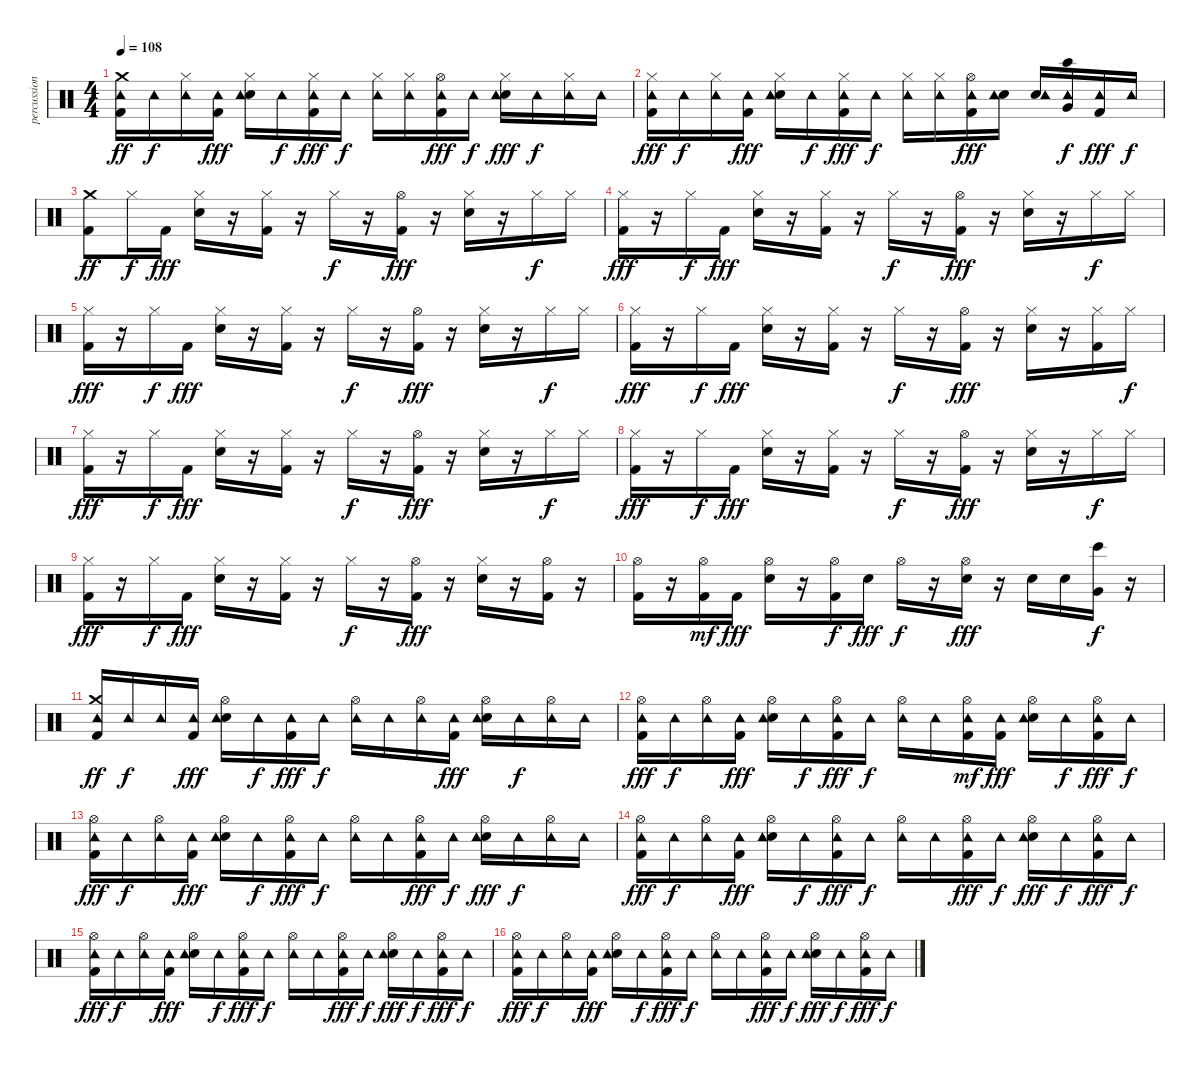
\track ("percussion" "percussion") {instrument percussion}
\staff {score}
\articulation defaults
\ts (4 4)
\tempo 108
\clef neutral
\ks c
("Kick (hit) 2" "Crash medium (hit)" "Tambourine (hit)").16{dy ff} "Tambourine (hit)".16{dy f} ("Hi-Hat (closed)" "Tambourine (hit)").16 ("Kick (hit) 2" "Tambourine (hit)").16{dy fff} ("Hi-Hat (closed)" "Electric Snare (hit)" "Tambourine (hit)").16 "Tambourine (hit)".16{dy f} ("Hi-Hat (closed)" "Kick (hit) 2" "Tambourine (hit)").16{dy fff} "Tambourine (hit)".16{dy f} ("Hi-Hat (closed)" "Tambourine (hit)").16 ("Hi-Hat (closed)" "Tambourine (hit)").16 ("Kick (hit) 2" "Hi-Hat (open)" "Tambourine (hit)").16{dy fff} "Tambourine (hit)".16{dy f} ("Hi-Hat (closed)" "Electric Snare (hit)" "Tambourine (hit)").16{dy fff} "Tambourine (hit)".16{dy f} ("Hi-Hat (closed)" "Tambourine (hit)").16 "Tambourine (hit)".16 |
("Hi-Hat (closed)" "Kick (hit) 2" "Tambourine (hit)").16{dy fff} "Tambourine (hit)".16{dy f} ("Hi-Hat (closed)" "Tambourine (hit)").16 ("Kick (hit) 2" "Tambourine (hit)").16{dy fff} ("Hi-Hat (closed)" "Electric Snare (hit)" "Tambourine (hit)").16 "Tambourine (hit)".16{dy f} ("Hi-Hat (closed)" "Kick (hit) 2" "Tambourine (hit)").16{dy fff} "Tambourine (hit)".16{dy f} ("Hi-Hat (closed)" "Tambourine (hit)").16 ("Hi-Hat (closed)" "Tambourine (hit)").16 ("Kick (hit) 2" "Hi-Hat (open)" "Tambourine (hit)").16{dy fff} ("Electric Snare (hit)" "Tambourine (hit)").16 ("Electric Snare (hit)" "Tambourine (hit)").16 ("Tambourine (hit)" "Bongo High (hit)" "Very Low Tom (hit)").16{dy f} ("Kick (hit) 2" "Tambourine (hit)").16{dy fff} "Tambourine (hit)".16{dy f} |
("Kick (hit) 2" "Crash medium (hit)").8{dy ff} "Hi-Hat (closed)".16{dy f} "Kick (hit) 2".16{dy fff} ("Hi-Hat (closed)" "Electric Snare (hit)").16 r.16 ("Hi-Hat (closed)" "Kick (hit) 2").16 r.16 "Hi-Hat (closed)".16{dy f} r.16 ("Kick (hit) 2" "Hi-Hat (open)").16{dy fff} r.16 ("Hi-Hat (closed)" "Electric Snare (hit)").16 r.16 "Hi-Hat (closed)".16{dy f} "Hi-Hat (closed)".16 |
("Hi-Hat (closed)" "Kick (hit) 2").16{dy fff} r.16 "Hi-Hat (closed)".16{dy f} "Kick (hit) 2".16{dy fff} ("Hi-Hat (closed)" "Electric Snare (hit)").16 r.16 ("Hi-Hat (closed)" "Kick (hit) 2").16 r.16 "Hi-Hat (closed)".16{dy f} r.16 ("Kick (hit) 2" "Hi-Hat (open)").16{dy fff} r.16 ("Hi-Hat (closed)" "Electric Snare (hit)").16 r.16 "Hi-Hat (closed)".16{dy f} "Hi-Hat (closed)".16 |
("Hi-Hat (closed)" "Kick (hit) 2").16{dy fff} r.16 "Hi-Hat (closed)".16{dy f} "Kick (hit) 2".16{dy fff} ("Hi-Hat (closed)" "Electric Snare (hit)").16 r.16 ("Hi-Hat (closed)" "Kick (hit) 2").16 r.16 "Hi-Hat (closed)".16{dy f} r.16 ("Kick (hit) 2" "Hi-Hat (open)").16{dy fff} r.16 ("Hi-Hat (closed)" "Electric Snare (hit)").16 r.16 "Hi-Hat (closed)".16{dy f} "Hi-Hat (closed)".16 |
("Hi-Hat (closed)" "Kick (hit) 2").16{dy fff} r.16 "Hi-Hat (closed)".16{dy f} "Kick (hit) 2".16{dy fff} ("Hi-Hat (closed)" "Electric Snare (hit)").16 r.16 ("Hi-Hat (closed)" "Kick (hit) 2").16 r.16 "Hi-Hat (closed)".16{dy f} r.16 ("Kick (hit) 2" "Hi-Hat (open)").16{dy fff} r.16 ("Hi-Hat (closed)" "Electric Snare (hit)").16 r.16 ("Kick (hit) 2" "Hi-Hat (closed)").16 "Hi-Hat (closed)".16{dy f} |
("Hi-Hat (closed)" "Kick (hit) 2").16{dy fff} r.16 "Hi-Hat (closed)".16{dy f} "Kick (hit) 2".16{dy fff} ("Hi-Hat (closed)" "Electric Snare (hit)").16 r.16 ("Hi-Hat (closed)" "Kick (hit) 2").16 r.16 "Hi-Hat (closed)".16{dy f} r.16 ("Kick (hit) 2" "Hi-Hat (open)").16{dy fff} r.16 ("Hi-Hat (closed)" "Electric Snare (hit)").16 r.16 "Hi-Hat (closed)".16{dy f} "Hi-Hat (closed)".16 |
("Hi-Hat (closed)" "Kick (hit) 2").16{dy fff} r.16 "Hi-Hat (closed)".16{dy f} "Kick (hit) 2".16{dy fff} ("Hi-Hat (closed)" "Electric Snare (hit)").16 r.16 ("Hi-Hat (closed)" "Kick (hit) 2").16 r.16 "Hi-Hat (closed)".16{dy f} r.16 ("Kick (hit) 2" "Hi-Hat (open)").16{dy fff} r.16 ("Hi-Hat (closed)" "Electric Snare (hit)").16 r.16 "Hi-Hat (closed)".16{dy f} "Hi-Hat (closed)".16 |
("Hi-Hat (closed)" "Kick (hit) 2").16{dy fff} r.16 "Hi-Hat (closed)".16{dy f} "Kick (hit) 2".16{dy fff} ("Hi-Hat (closed)" "Electric Snare (hit)").16 r.16 ("Hi-Hat (closed)" "Kick (hit) 2").16 r.16 "Hi-Hat (closed)".16{dy f} r.16 ("Kick (hit) 2" "Hi-Hat (open)").16{dy fff} r.16 ("Hi-Hat (closed)" "Electric Snare (hit)").16 r.16 ("Kick (hit) 2" "Hi-Hat (open)").16 r.16 |
("Hi-Hat (open)" "Kick (hit) 2").16 r.16 ("Hi-Hat (open)" "Kick (hit) 2").16{dy mf} "Kick (hit) 2".16{dy fff} ("Hi-Hat (open)" "Electric Snare (hit)").16 r.16 ("Kick (hit) 2" "Hi-Hat (open)").16{dy f} "Electric Snare (hit)".16{dy fff} "Hi-Hat (open)".16{dy f} r.16 ("Hi-Hat (open)" "Electric Snare (hit)").16{dy fff} r.16 "Electric Snare (hit)".16 "Electric Snare (hit)".16 ("Bongo High (hit)" "Very Low Tom (hit)").16{dy f} r.16 |
("Kick (hit) 2" "Crash medium (hit)" "Tambourine (hit)").16{dy ff} "Tambourine (hit)".16{dy f} "Tambourine (hit)".16 ("Kick (hit) 2" "Tambourine (hit)").16{dy fff} ("Hi-Hat (open)" "Electric Snare (hit)" "Tambourine (hit)").16 "Tambourine (hit)".16{dy f} ("Kick (hit) 2" "Tambourine (hit)").16{dy fff} "Tambourine (hit)".16{dy f} ("Hi-Hat (open)" "Tambourine (hit)").16 "Tambourine (hit)".16 ("Hi-Hat (open)" "Tambourine (hit)").16 ("Kick (hit) 2" "Tambourine (hit)").16{dy fff} ("Hi-Hat (open)" "Electric Snare (hit)" "Tambourine (hit)").16 "Tambourine (hit)".16{dy f} ("Hi-Hat (open)" "Tambourine (hit)").16 "Tambourine (hit)".16 |
("Hi-Hat (open)" "Kick (hit) 2" "Tambourine (hit)").16{dy fff} "Tambourine (hit)".16{dy f} ("Hi-Hat (open)" "Tambourine (hit)").16 ("Kick (hit) 2" "Tambourine (hit)").16{dy fff} ("Hi-Hat (open)" "Electric Snare (hit)" "Tambourine (hit)").16 "Tambourine (hit)".16{dy f} ("Hi-Hat (open)" "Kick (hit) 2" "Tambourine (hit)").16{dy fff} "Tambourine (hit)".16{dy f} ("Hi-Hat (open)" "Tambourine (hit)").16 "Tambourine (hit)".16 ("Kick (hit) 2" "Hi-Hat (open)" "Tambourine (hit)").16{dy mf} ("Kick (hit) 2" "Tambourine (hit)").16{dy fff} ("Hi-Hat (open)" "Electric Snare (hit)" "Tambourine (hit)").16 "Tambourine (hit)".16{dy f} ("Kick (hit) 2" "Hi-Hat (open)" "Tambourine (hit)").16{dy fff} "Tambourine (hit)".16{dy f} |
("Hi-Hat (open)" "Kick (hit) 2" "Tambourine (hit)").16{dy fff} "Tambourine (hit)".16{dy f} ("Hi-Hat (open)" "Tambourine (hit)").16 ("Kick (hit) 2" "Tambourine (hit)").16{dy fff} ("Hi-Hat (open)" "Electric Snare (hit)" "Tambourine (hit)").16 "Tambourine (hit)".16{dy f} ("Hi-Hat (open)" "Kick (hit) 2" "Tambourine (hit)").16{dy fff} "Tambourine (hit)".16{dy f} ("Hi-Hat (open)" "Tambourine (hit)").16 "Tambourine (hit)".16 ("Kick (hit) 2" "Hi-Hat (open)" "Tambourine (hit)").16{dy fff} "Tambourine (hit)".16{dy f} ("Hi-Hat (open)" "Electric Snare (hit)" "Tambourine (hit)").16{dy fff} "Tambourine (hit)".16{dy f} ("Hi-Hat (open)" "Tambourine (hit)").16 "Tambourine (hit)".16 |
("Hi-Hat (open)" "Kick (hit) 2" "Tambourine (hit)").16{dy fff} "Tambourine (hit)".16{dy f} ("Hi-Hat (open)" "Tambourine (hit)").16 ("Kick (hit) 2" "Tambourine (hit)").16{dy fff} ("Hi-Hat (open)" "Electric Snare (hit)" "Tambourine (hit)").16 "Tambourine (hit)".16{dy f} ("Hi-Hat (open)" "Kick (hit) 2" "Tambourine (hit)").16{dy fff} "Tambourine (hit)".16{dy f} ("Hi-Hat (open)" "Tambourine (hit)").16 "Tambourine (hit)".16 ("Kick (hit) 2" "Hi-Hat (open)" "Tambourine (hit)").16{dy fff} "Tambourine (hit)".16{dy f} ("Hi-Hat (open)" "Electric Snare (hit)" "Tambourine (hit)").16{dy fff} "Tambourine (hit)".16{dy f} ("Kick (hit) 2" "Hi-Hat (open)" "Tambourine (hit)").16{dy fff} "Tambourine (hit)".16{dy f} |
("Hi-Hat (open)" "Kick (hit) 2" "Tambourine (hit)").16{dy fff} "Tambourine (hit)".16{dy f} ("Hi-Hat (open)" "Tambourine (hit)").16 ("Kick (hit) 2" "Tambourine (hit)").16{dy fff} ("Hi-Hat (open)" "Electric Snare (hit)" "Tambourine (hit)").16 "Tambourine (hit)".16{dy f} ("Hi-Hat (open)" "Kick (hit) 2" "Tambourine (hit)").16{dy fff} "Tambourine (hit)".16{dy f} ("Hi-Hat (open)" "Tambourine (hit)").16 "Tambourine (hit)".16 ("Kick (hit) 2" "Hi-Hat (open)" "Tambourine (hit)").16{dy fff} "Tambourine (hit)".16{dy f} ("Hi-Hat (open)" "Electric Snare (hit)" "Tambourine (hit)").16{dy fff} "Tambourine (hit)".16{dy f} ("Kick (hit) 2" "Hi-Hat (open)" "Tambourine (hit)").16{dy fff} "Tambourine (hit)".16{dy f} |
("Hi-Hat (open)" "Kick (hit) 2" "Tambourine (hit)").16{dy fff} "Tambourine (hit)".16{dy f} ("Hi-Hat (open)" "Tambourine (hit)").16 ("Kick (hit) 2" "Tambourine (hit)").16{dy fff} ("Hi-Hat (open)" "Electric Snare (hit)" "Tambourine (hit)").16 "Tambourine (hit)".16{dy f} ("Hi-Hat (open)" "Kick (hit) 2" "Tambourine (hit)").16{dy fff} "Tambourine (hit)".16{dy f} ("Hi-Hat (open)" "Tambourine (hit)").16 "Tambourine (hit)".16 ("Kick (hit) 2" "Hi-Hat (open)" "Tambourine (hit)").16{dy fff} "Tambourine (hit)".16{dy f} ("Hi-Hat (open)" "Electric Snare (hit)" "Tambourine (hit)").16{dy fff} "Tambourine (hit)".16{dy f} ("Kick (hit) 2" "Hi-Hat (open)" "Tambourine (hit)").16{dy fff} "Tambourine (hit)".16{dy f}
